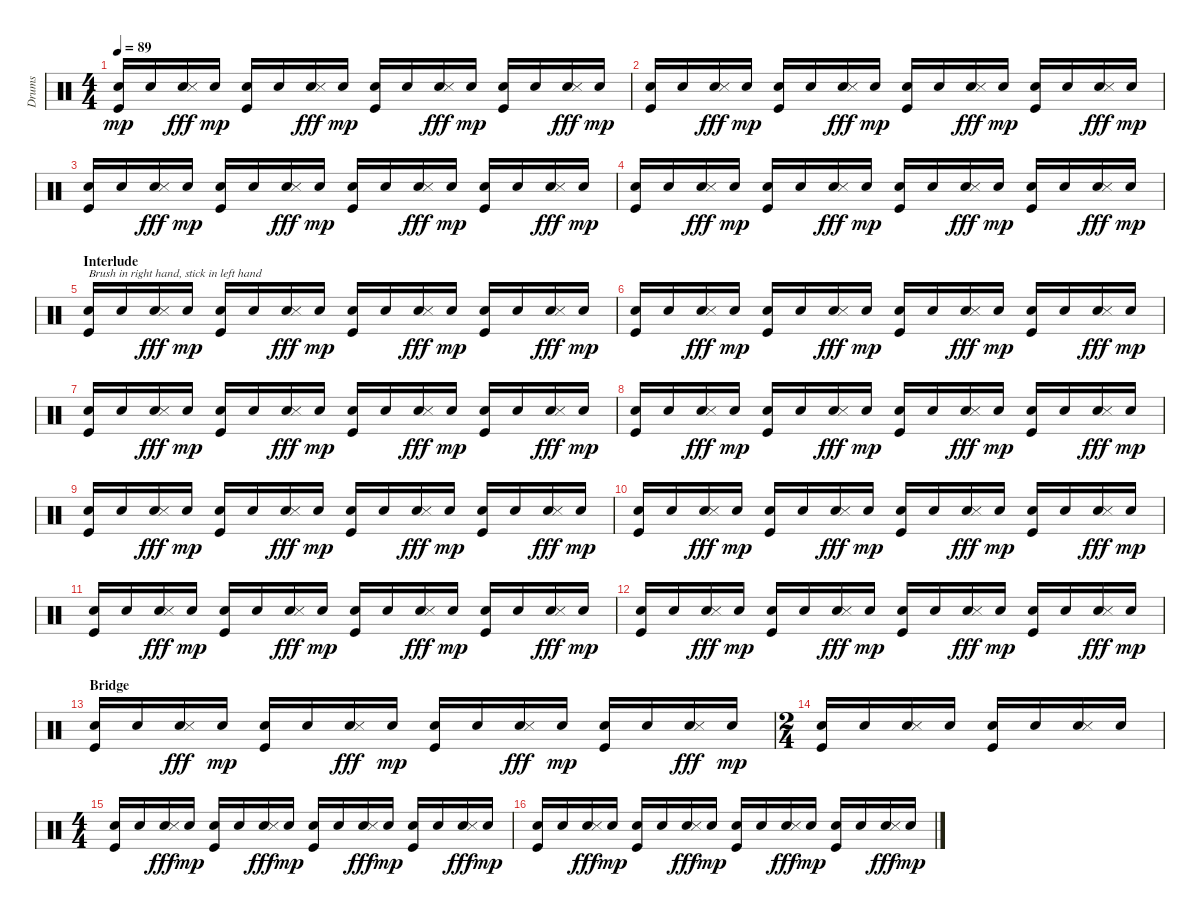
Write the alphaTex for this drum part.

\track ("Drums" "Drums") {instrument percussion}
\staff {score}
\articulation defaults
\ts (4 4)
\tempo 89
\clef neutral
\ks c
("Snare (hit) 2" "Kick (hit)").16{dy mp} "Snare (hit) 2".16 ("Snare (hit) 2" "Snare (side stick) 3").16{dy fff} "Snare (hit) 2".16{dy mp} ("Snare (hit) 2" "Kick (hit)").16 "Snare (hit) 2".16 ("Snare (hit) 2" "Snare (side stick) 3").16{dy fff} "Snare (hit) 2".16{dy mp} ("Snare (hit) 2" "Kick (hit)").16 "Snare (hit) 2".16 ("Snare (hit) 2" "Snare (side stick) 3").16{dy fff} "Snare (hit) 2".16{dy mp} ("Snare (hit) 2" "Kick (hit)").16 "Snare (hit) 2".16 ("Snare (hit) 2" "Snare (side stick) 3").16{dy fff} "Snare (hit) 2".16{dy mp} |
("Snare (hit) 2" "Kick (hit)").16 "Snare (hit) 2".16 ("Snare (hit) 2" "Snare (side stick) 3").16{dy fff} "Snare (hit) 2".16{dy mp} ("Snare (hit) 2" "Kick (hit)").16 "Snare (hit) 2".16 ("Snare (hit) 2" "Snare (side stick) 3").16{dy fff} "Snare (hit) 2".16{dy mp} ("Snare (hit) 2" "Kick (hit)").16 "Snare (hit) 2".16 ("Snare (hit) 2" "Snare (side stick) 3").16{dy fff} "Snare (hit) 2".16{dy mp} ("Snare (hit) 2" "Kick (hit)").16 "Snare (hit) 2".16 ("Snare (hit) 2" "Snare (side stick) 3").16{dy fff} "Snare (hit) 2".16{dy mp} |
("Snare (hit) 2" "Kick (hit)").16 "Snare (hit) 2".16 ("Snare (hit) 2" "Snare (side stick) 3").16{dy fff} "Snare (hit) 2".16{dy mp} ("Snare (hit) 2" "Kick (hit)").16 "Snare (hit) 2".16 ("Snare (hit) 2" "Snare (side stick) 3").16{dy fff} "Snare (hit) 2".16{dy mp} ("Snare (hit) 2" "Kick (hit)").16 "Snare (hit) 2".16 ("Snare (hit) 2" "Snare (side stick) 3").16{dy fff} "Snare (hit) 2".16{dy mp} ("Snare (hit) 2" "Kick (hit)").16 "Snare (hit) 2".16 ("Snare (hit) 2" "Snare (side stick) 3").16{dy fff} "Snare (hit) 2".16{dy mp} |
("Snare (hit) 2" "Kick (hit)").16 "Snare (hit) 2".16 ("Snare (hit) 2" "Snare (side stick) 3").16{dy fff} "Snare (hit) 2".16{dy mp} ("Snare (hit) 2" "Kick (hit)").16 "Snare (hit) 2".16 ("Snare (hit) 2" "Snare (side stick) 3").16{dy fff} "Snare (hit) 2".16{dy mp} ("Snare (hit) 2" "Kick (hit)").16 "Snare (hit) 2".16 ("Snare (hit) 2" "Snare (side stick) 3").16{dy fff} "Snare (hit) 2".16{dy mp} ("Snare (hit) 2" "Kick (hit)").16 "Snare (hit) 2".16 ("Snare (hit) 2" "Snare (side stick) 3").16{dy fff} "Snare (hit) 2".16{dy mp} |
\section ("" "Interlude")
("Snare (hit) 2" "Kick (hit)").16{txt "Brush in right hand, stick in left hand"} "Snare (hit) 2".16 ("Snare (hit) 2" "Snare (side stick) 3").16{dy fff} "Snare (hit) 2".16{dy mp} ("Snare (hit) 2" "Kick (hit)").16 "Snare (hit) 2".16 ("Snare (hit) 2" "Snare (side stick) 3").16{dy fff} "Snare (hit) 2".16{dy mp} ("Snare (hit) 2" "Kick (hit)").16 "Snare (hit) 2".16 ("Snare (hit) 2" "Snare (side stick) 3").16{dy fff} "Snare (hit) 2".16{dy mp} ("Snare (hit) 2" "Kick (hit)").16 "Snare (hit) 2".16 ("Snare (hit) 2" "Snare (side stick) 3").16{dy fff} "Snare (hit) 2".16{dy mp} |
("Snare (hit) 2" "Kick (hit)").16 "Snare (hit) 2".16 ("Snare (hit) 2" "Snare (side stick) 3").16{dy fff} "Snare (hit) 2".16{dy mp} ("Snare (hit) 2" "Kick (hit)").16 "Snare (hit) 2".16 ("Snare (hit) 2" "Snare (side stick) 3").16{dy fff} "Snare (hit) 2".16{dy mp} ("Snare (hit) 2" "Kick (hit)").16 "Snare (hit) 2".16 ("Snare (hit) 2" "Snare (side stick) 3").16{dy fff} "Snare (hit) 2".16{dy mp} ("Snare (hit) 2" "Kick (hit)").16 "Snare (hit) 2".16 ("Snare (hit) 2" "Snare (side stick) 3").16{dy fff} "Snare (hit) 2".16{dy mp} |
("Snare (hit) 2" "Kick (hit)").16 "Snare (hit) 2".16 ("Snare (hit) 2" "Snare (side stick) 3").16{dy fff} "Snare (hit) 2".16{dy mp} ("Snare (hit) 2" "Kick (hit)").16 "Snare (hit) 2".16 ("Snare (hit) 2" "Snare (side stick) 3").16{dy fff} "Snare (hit) 2".16{dy mp} ("Snare (hit) 2" "Kick (hit)").16 "Snare (hit) 2".16 ("Snare (hit) 2" "Snare (side stick) 3").16{dy fff} "Snare (hit) 2".16{dy mp} ("Snare (hit) 2" "Kick (hit)").16 "Snare (hit) 2".16 ("Snare (hit) 2" "Snare (side stick) 3").16{dy fff} "Snare (hit) 2".16{dy mp} |
("Snare (hit) 2" "Kick (hit)").16 "Snare (hit) 2".16 ("Snare (hit) 2" "Snare (side stick) 3").16{dy fff} "Snare (hit) 2".16{dy mp} ("Snare (hit) 2" "Kick (hit)").16 "Snare (hit) 2".16 ("Snare (hit) 2" "Snare (side stick) 3").16{dy fff} "Snare (hit) 2".16{dy mp} ("Snare (hit) 2" "Kick (hit)").16 "Snare (hit) 2".16 ("Snare (hit) 2" "Snare (side stick) 3").16{dy fff} "Snare (hit) 2".16{dy mp} ("Snare (hit) 2" "Kick (hit)").16 "Snare (hit) 2".16 ("Snare (hit) 2" "Snare (side stick) 3").16{dy fff} "Snare (hit) 2".16{dy mp} |
("Snare (hit) 2" "Kick (hit)").16 "Snare (hit) 2".16 ("Snare (hit) 2" "Snare (side stick) 3").16{dy fff} "Snare (hit) 2".16{dy mp} ("Snare (hit) 2" "Kick (hit)").16 "Snare (hit) 2".16 ("Snare (hit) 2" "Snare (side stick) 3").16{dy fff} "Snare (hit) 2".16{dy mp} ("Snare (hit) 2" "Kick (hit)").16 "Snare (hit) 2".16 ("Snare (hit) 2" "Snare (side stick) 3").16{dy fff} "Snare (hit) 2".16{dy mp} ("Snare (hit) 2" "Kick (hit)").16 "Snare (hit) 2".16 ("Snare (hit) 2" "Snare (side stick) 3").16{dy fff} "Snare (hit) 2".16{dy mp} |
("Snare (hit) 2" "Kick (hit)").16 "Snare (hit) 2".16 ("Snare (hit) 2" "Snare (side stick) 3").16{dy fff} "Snare (hit) 2".16{dy mp} ("Snare (hit) 2" "Kick (hit)").16 "Snare (hit) 2".16 ("Snare (hit) 2" "Snare (side stick) 3").16{dy fff} "Snare (hit) 2".16{dy mp} ("Snare (hit) 2" "Kick (hit)").16 "Snare (hit) 2".16 ("Snare (hit) 2" "Snare (side stick) 3").16{dy fff} "Snare (hit) 2".16{dy mp} ("Snare (hit) 2" "Kick (hit)").16 "Snare (hit) 2".16 ("Snare (hit) 2" "Snare (side stick) 3").16{dy fff} "Snare (hit) 2".16{dy mp} |
("Snare (hit) 2" "Kick (hit)").16 "Snare (hit) 2".16 ("Snare (hit) 2" "Snare (side stick) 3").16{dy fff} "Snare (hit) 2".16{dy mp} ("Snare (hit) 2" "Kick (hit)").16 "Snare (hit) 2".16 ("Snare (hit) 2" "Snare (side stick) 3").16{dy fff} "Snare (hit) 2".16{dy mp} ("Snare (hit) 2" "Kick (hit)").16 "Snare (hit) 2".16 ("Snare (hit) 2" "Snare (side stick) 3").16{dy fff} "Snare (hit) 2".16{dy mp} ("Snare (hit) 2" "Kick (hit)").16 "Snare (hit) 2".16 ("Snare (hit) 2" "Snare (side stick) 3").16{dy fff} "Snare (hit) 2".16{dy mp} |
("Snare (hit) 2" "Kick (hit)").16 "Snare (hit) 2".16 ("Snare (hit) 2" "Snare (side stick) 3").16{dy fff} "Snare (hit) 2".16{dy mp} ("Snare (hit) 2" "Kick (hit)").16 "Snare (hit) 2".16 ("Snare (hit) 2" "Snare (side stick) 3").16{dy fff} "Snare (hit) 2".16{dy mp} ("Snare (hit) 2" "Kick (hit)").16 "Snare (hit) 2".16 ("Snare (hit) 2" "Snare (side stick) 3").16{dy fff} "Snare (hit) 2".16{dy mp} ("Snare (hit) 2" "Kick (hit)").16 "Snare (hit) 2".16 ("Snare (hit) 2" "Snare (side stick) 3").16{dy fff} "Snare (hit) 2".16{dy mp} |
\section ("" "Bridge")
("Snare (hit) 2" "Kick (hit)").16 "Snare (hit) 2".16 ("Snare (hit) 2" "Snare (side stick) 3").16{dy fff} "Snare (hit) 2".16{dy mp} ("Snare (hit) 2" "Kick (hit)").16 "Snare (hit) 2".16 ("Snare (hit) 2" "Snare (side stick) 3").16{dy fff} "Snare (hit) 2".16{dy mp} ("Snare (hit) 2" "Kick (hit)").16 "Snare (hit) 2".16 ("Snare (hit) 2" "Snare (side stick) 3").16{dy fff} "Snare (hit) 2".16{dy mp} ("Snare (hit) 2" "Kick (hit)").16 "Snare (hit) 2".16 ("Snare (hit) 2" "Snare (side stick) 3").16{dy fff} "Snare (hit) 2".16{dy mp} |
\ts (2 4)
("Snare (hit) 2" "Kick (hit)").16 "Snare (hit) 2".16 ("Snare (hit) 2" "Snare (side stick) 3").16 "Snare (hit) 2".16 ("Snare (hit) 2" "Kick (hit)").16 "Snare (hit) 2".16 ("Snare (hit) 2" "Snare (side stick) 3").16 "Snare (hit) 2".16 |
\ts (4 4)
("Snare (hit) 2" "Kick (hit)").16 "Snare (hit) 2".16 ("Snare (hit) 2" "Snare (side stick) 3").16{dy fff} "Snare (hit) 2".16{dy mp} ("Snare (hit) 2" "Kick (hit)").16 "Snare (hit) 2".16 ("Snare (hit) 2" "Snare (side stick) 3").16{dy fff} "Snare (hit) 2".16{dy mp} ("Snare (hit) 2" "Kick (hit)").16 "Snare (hit) 2".16 ("Snare (hit) 2" "Snare (side stick) 3").16{dy fff} "Snare (hit) 2".16{dy mp} ("Snare (hit) 2" "Kick (hit)").16 "Snare (hit) 2".16 ("Snare (hit) 2" "Snare (side stick) 3").16{dy fff} "Snare (hit) 2".16{dy mp} |
("Snare (hit) 2" "Kick (hit)").16 "Snare (hit) 2".16 ("Snare (hit) 2" "Snare (side stick) 3").16{dy fff} "Snare (hit) 2".16{dy mp} ("Snare (hit) 2" "Kick (hit)").16 "Snare (hit) 2".16 ("Snare (hit) 2" "Snare (side stick) 3").16{dy fff} "Snare (hit) 2".16{dy mp} ("Snare (hit) 2" "Kick (hit)").16 "Snare (hit) 2".16 ("Snare (hit) 2" "Snare (side stick) 3").16{dy fff} "Snare (hit) 2".16{dy mp} ("Snare (hit) 2" "Kick (hit)").16 "Snare (hit) 2".16 ("Snare (hit) 2" "Snare (side stick) 3").16{dy fff} "Snare (hit) 2".16{dy mp}
